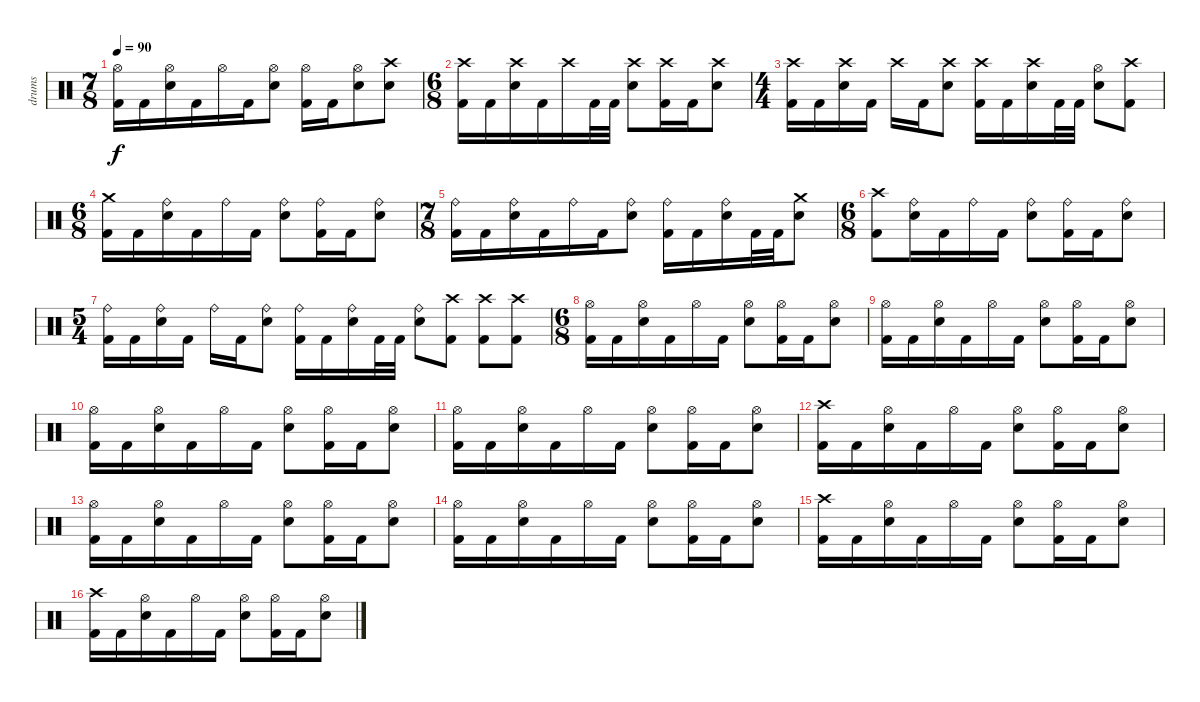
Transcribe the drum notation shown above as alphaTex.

\track ("drums" "drums") {instrument percussion}
\staff {score}
\articulation defaults
\ts (7 8)
\tempo 90
\clef neutral
\ks c
("Hi-Hat (open)" "Kick (hit) 2").16{dy f} "Kick (hit) 2".16 ("Hi-Hat (open)" "Electric Snare (hit)").16 "Kick (hit) 2".16 "Hi-Hat (open)".16 "Kick (hit) 2".16 ("Hi-Hat (open)" "Electric Snare (hit)").8 ("Hi-Hat (open)" "Kick (hit) 2").16 "Kick (hit) 2".16 ("Hi-Hat (open)" "Electric Snare (hit)").8 ("Crash high (hit)" "Electric Snare (hit)").8 |
\ts (6 8)
("Crash high (hit)" "Kick (hit) 2").16 "Kick (hit) 2".16 ("Crash high (hit)" "Electric Snare (hit)").16 "Kick (hit) 2".16 "Crash high (hit)".16 "Kick (hit) 2".32 "Kick (hit) 2".32 ("Crash high (hit)" "Electric Snare (hit)").8 ("Crash high (hit)" "Kick (hit) 2").16 "Kick (hit) 2".16 ("Crash high (hit)" "Electric Snare (hit)").8 |
\ts (4 4)
("Crash high (hit)" "Kick (hit) 2").16 "Kick (hit) 2".16 ("Crash high (hit)" "Electric Snare (hit)").16 "Kick (hit) 2".16 "Crash high (hit)".16 "Kick (hit) 2".16 ("Crash high (hit)" "Electric Snare (hit)").8 ("Crash high (hit)" "Kick (hit) 2").16 "Kick (hit) 2".16 ("Crash high (hit)" "Electric Snare (hit)").16 "Kick (hit) 2".32 "Kick (hit) 2".32 ("Hi-Hat (open)" "Electric Snare (hit)").8 ("Crash high (hit)" "Kick (hit) 2").8 |
\ts (6 8)
("Crash medium (hit)" "Kick (hit) 2").16 "Kick (hit) 2".16 ("Ride (bell)" "Electric Snare (hit)").16 "Kick (hit) 2".16 "Ride (bell)".16 "Kick (hit) 2".16 ("Ride (bell)" "Electric Snare (hit)").8 ("Ride (bell)" "Kick (hit) 2").16 "Kick (hit) 2".16 ("Ride (bell)" "Electric Snare (hit)").8 |
\ts (7 8)
("Ride (bell)" "Kick (hit) 2").16 "Kick (hit) 2".16 ("Ride (bell)" "Electric Snare (hit)").16 "Kick (hit) 2".16 "Ride (bell)".16 "Kick (hit) 2".16 ("Ride (bell)" "Electric Snare (hit)").8 ("Ride (bell)" "Kick (hit) 2").16 "Kick (hit) 2".16 ("Ride (bell)" "Electric Snare (hit)").16 "Kick (hit) 2".32 "Kick (hit) 2".32 ("Crash medium (hit)" "Electric Snare (hit)").8 |
\ts (6 8)
("Crash high (hit)" "Kick (hit) 2").8 ("Ride (bell)" "Electric Snare (hit)").16 "Kick (hit) 2".16 "Ride (bell)".16 "Kick (hit) 2".16 ("Ride (bell)" "Electric Snare (hit)").8 ("Ride (bell)" "Kick (hit) 2").16 "Kick (hit) 2".16 ("Ride (bell)" "Electric Snare (hit)").8 |
\ts (5 4)
("Ride (bell)" "Kick (hit) 2").16 "Kick (hit) 2".16 ("Ride (bell)" "Electric Snare (hit)").16 "Kick (hit) 2".16 "Ride (bell)".16 "Kick (hit) 2".16 ("Ride (bell)" "Electric Snare (hit)").8 ("Ride (bell)" "Kick (hit) 2").16 "Kick (hit) 2".16 ("Ride (bell)" "Electric Snare (hit)").16 "Kick (hit) 2".32 "Kick (hit) 2".32 ("Ride (bell)" "Electric Snare (hit)").8 ("Crash high (hit)" "Kick (hit) 2").8 ("Crash high (hit)" "Kick (hit) 2").8 ("Crash high (hit)" "Kick (hit) 2").8 |
\ts (6 8)
("Hi-Hat (open)" "Kick (hit) 2").16 "Kick (hit) 2".16 ("Hi-Hat (open)" "Electric Snare (hit)").16 "Kick (hit) 2".16 "Hi-Hat (open)".16 "Kick (hit) 2".16 ("Hi-Hat (open)" "Electric Snare (hit)").8 ("Hi-Hat (open)" "Kick (hit) 2").16 "Kick (hit) 2".16 ("Hi-Hat (open)" "Electric Snare (hit)").8 |
("Hi-Hat (open)" "Kick (hit) 2").16 "Kick (hit) 2".16 ("Hi-Hat (open)" "Electric Snare (hit)").16 "Kick (hit) 2".16 "Hi-Hat (open)".16 "Kick (hit) 2".16 ("Hi-Hat (open)" "Electric Snare (hit)").8 ("Hi-Hat (open)" "Kick (hit) 2").16 "Kick (hit) 2".16 ("Hi-Hat (open)" "Electric Snare (hit)").8 |
("Hi-Hat (open)" "Kick (hit) 2").16 "Kick (hit) 2".16 ("Hi-Hat (open)" "Electric Snare (hit)").16 "Kick (hit) 2".16 "Hi-Hat (open)".16 "Kick (hit) 2".16 ("Hi-Hat (open)" "Electric Snare (hit)").8 ("Hi-Hat (open)" "Kick (hit) 2").16 "Kick (hit) 2".16 ("Hi-Hat (open)" "Electric Snare (hit)").8 |
("Hi-Hat (open)" "Kick (hit) 2").16 "Kick (hit) 2".16 ("Hi-Hat (open)" "Electric Snare (hit)").16 "Kick (hit) 2".16 "Hi-Hat (open)".16 "Kick (hit) 2".16 ("Hi-Hat (open)" "Electric Snare (hit)").8 ("Hi-Hat (open)" "Kick (hit) 2").16 "Kick (hit) 2".16 ("Hi-Hat (open)" "Electric Snare (hit)").8 |
("Crash high (hit)" "Kick (hit) 2").16 "Kick (hit) 2".16 ("Hi-Hat (open)" "Electric Snare (hit)").16 "Kick (hit) 2".16 "Hi-Hat (open)".16 "Kick (hit) 2".16 ("Hi-Hat (open)" "Electric Snare (hit)").8 ("Hi-Hat (open)" "Kick (hit) 2").16 "Kick (hit) 2".16 ("Hi-Hat (open)" "Electric Snare (hit)").8 |
("Hi-Hat (open)" "Kick (hit) 2").16 "Kick (hit) 2".16 ("Hi-Hat (open)" "Electric Snare (hit)").16 "Kick (hit) 2".16 "Hi-Hat (open)".16 "Kick (hit) 2".16 ("Hi-Hat (open)" "Electric Snare (hit)").8 ("Hi-Hat (open)" "Kick (hit) 2").16 "Kick (hit) 2".16 ("Hi-Hat (open)" "Electric Snare (hit)").8 |
("Hi-Hat (open)" "Kick (hit) 2").16 "Kick (hit) 2".16 ("Hi-Hat (open)" "Electric Snare (hit)").16 "Kick (hit) 2".16 "Hi-Hat (open)".16 "Kick (hit) 2".16 ("Hi-Hat (open)" "Electric Snare (hit)").8 ("Hi-Hat (open)" "Kick (hit) 2").16 "Kick (hit) 2".16 ("Hi-Hat (open)" "Electric Snare (hit)").8 |
("Crash high (hit)" "Kick (hit) 2").16 "Kick (hit) 2".16 ("Hi-Hat (open)" "Electric Snare (hit)").16 "Kick (hit) 2".16 "Hi-Hat (open)".16 "Kick (hit) 2".16 ("Hi-Hat (open)" "Electric Snare (hit)").8 ("Hi-Hat (open)" "Kick (hit) 2").16 "Kick (hit) 2".16 ("Hi-Hat (open)" "Electric Snare (hit)").8 |
("Crash high (hit)" "Kick (hit) 2").16 "Kick (hit) 2".16 ("Hi-Hat (open)" "Electric Snare (hit)").16 "Kick (hit) 2".16 "Hi-Hat (open)".16 "Kick (hit) 2".16 ("Hi-Hat (open)" "Electric Snare (hit)").8 ("Hi-Hat (open)" "Kick (hit) 2").16 "Kick (hit) 2".16 ("Hi-Hat (open)" "Electric Snare (hit)").8
